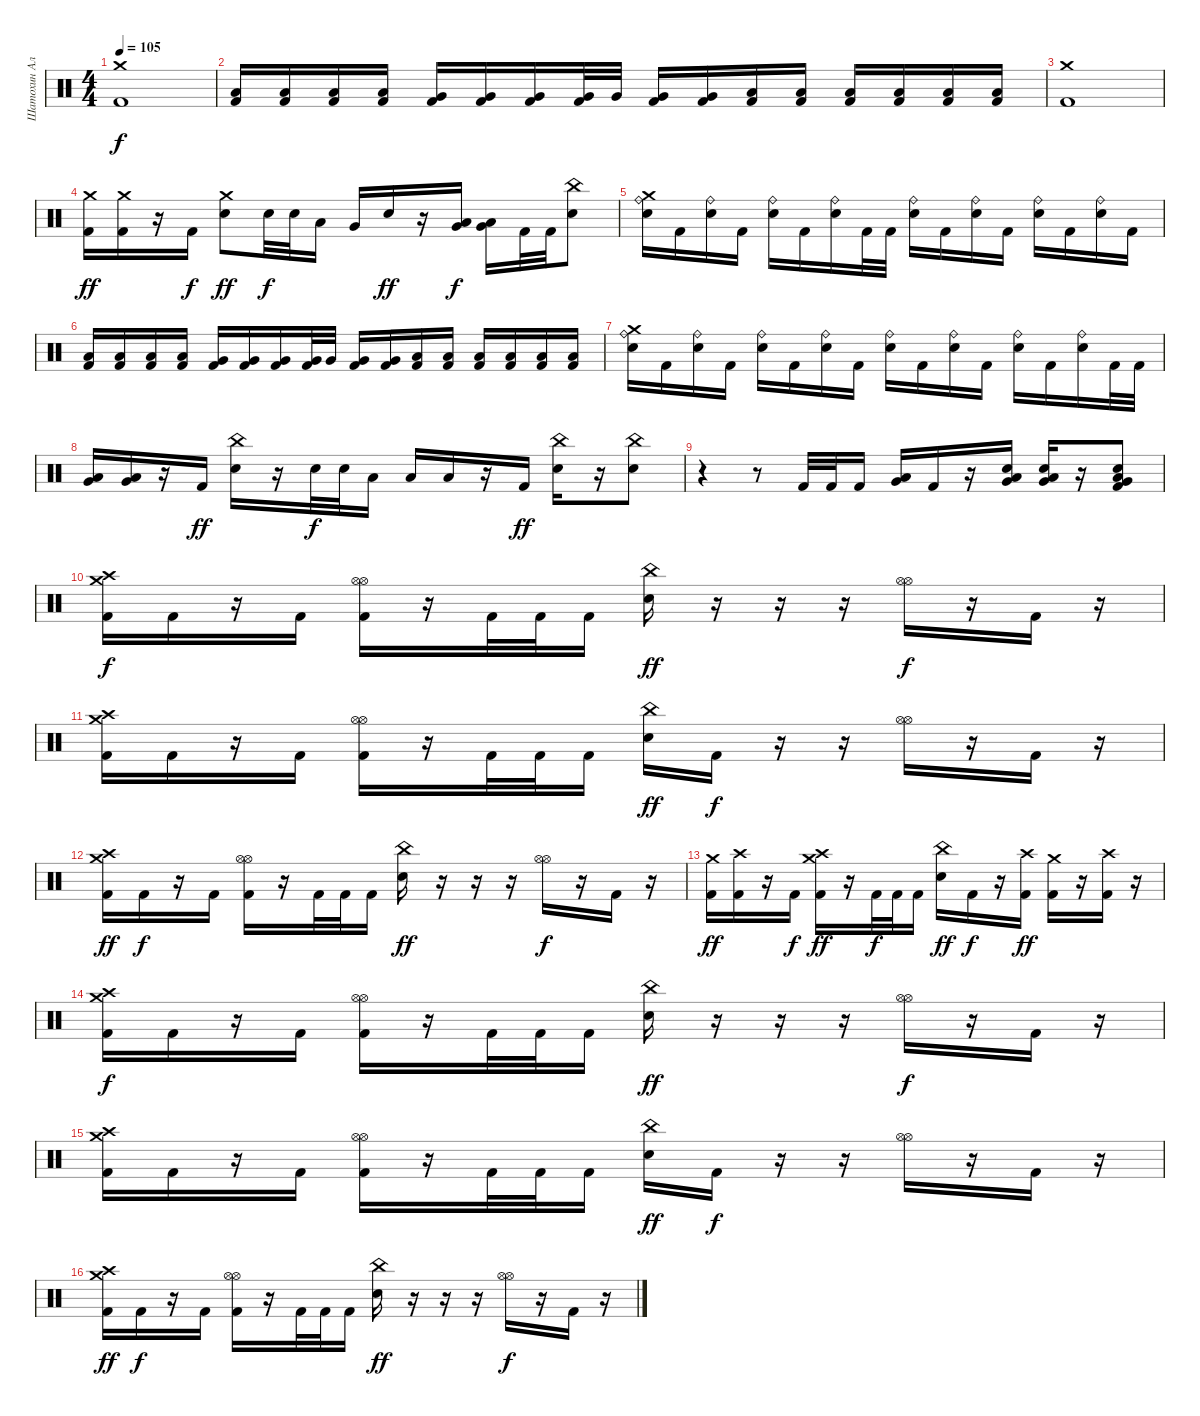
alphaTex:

\track ("Шатохин Алексей" "Шатохин Ал") {instrument percussion}
\staff {score}
\articulation defaults
\ts (4 4)
\tempo 105
\clef neutral
\ks c
("Crash medium (hit)" "Kick (hit) 2").1{dy f} |
("Low Tom (hit)" "Kick (hit) 2").16 ("Low Tom (hit)" "Kick (hit) 2").16 ("Low Tom (hit)" "Kick (hit) 2").16 ("Low Tom (hit)" "Kick (hit) 2").16 ("Very Low Tom (hit)" "Kick (hit) 2").16 ("Very Low Tom (hit)" "Kick (hit) 2").16 ("Very Low Tom (hit)" "Kick (hit) 2").16 ("Very Low Tom (hit)" "Kick (hit) 2").32 "Very Low Tom (hit)".32 ("Very Low Tom (hit)" "Kick (hit) 2").16 ("Very Low Tom (hit)" "Kick (hit) 2").16 ("Low Floor Tom (hit)" "Kick (hit) 2").16 ("Low Floor Tom (hit)" "Kick (hit) 2").16 ("Low Floor Tom (hit)" "Kick (hit) 2").16 ("Low Floor Tom (hit)" "Kick (hit) 2").16 ("Low Floor Tom (hit)" "Kick (hit) 2").16 ("Low Floor Tom (hit)" "Kick (hit) 2").16 |
("Crash medium (hit)" "Kick (hit) 2").1 |
("Crash medium (hit)" "Kick (hit) 2").16{dy ff} ("Crash medium (hit)" "Kick (hit) 2").16 r.16 "Kick (hit) 2".16{dy f} ("Crash medium (hit)" "Electric Snare (hit)").8{dy ff} "Electric Snare (hit)".32{dy f} "Electric Snare (hit)".32 "Low Tom (hit)".16 "Very Low Tom (hit)".16 "Electric Snare (hit)".16{dy ff} r.16 ("Very Low Tom (hit)" "Low Floor Tom (hit)").16{dy f} ("Very Low Tom (hit)" "Low Floor Tom (hit)").16 "Kick (hit) 2".32 "Kick (hit) 2".32 ("China (hit)" "Electric Snare (hit)").8 |
("Crash medium (hit)" "Ride (bell)" "Electric Snare (hit)").16 "Kick (hit) 2".16 ("Ride (bell)" "Electric Snare (hit)").16 "Kick (hit) 2".16 ("Ride (bell)" "Electric Snare (hit)").16 "Kick (hit) 2".16 ("Ride (bell)" "Electric Snare (hit)").16 "Kick (hit) 2".32 "Kick (hit) 2".32 ("Ride (bell)" "Electric Snare (hit)").16 "Kick (hit) 2".16 ("Ride (bell)" "Electric Snare (hit)").16 "Kick (hit) 2".16 ("Ride (bell)" "Electric Snare (hit)").16 "Kick (hit) 2".16 ("Ride (bell)" "Electric Snare (hit)").16 "Kick (hit) 2".16 |
("Low Tom (hit)" "Kick (hit) 2").16 ("Low Tom (hit)" "Kick (hit) 2").16 ("Low Tom (hit)" "Kick (hit) 2").16 ("Low Tom (hit)" "Kick (hit) 2").16 ("Very Low Tom (hit)" "Kick (hit) 2").16 ("Very Low Tom (hit)" "Kick (hit) 2").16 ("Very Low Tom (hit)" "Kick (hit) 2").16 ("Very Low Tom (hit)" "Kick (hit) 2").32 "Very Low Tom (hit)".32 ("Very Low Tom (hit)" "Kick (hit) 2").16 ("Very Low Tom (hit)" "Kick (hit) 2").16 ("Low Floor Tom (hit)" "Kick (hit) 2").16 ("Low Floor Tom (hit)" "Kick (hit) 2").16 ("Low Floor Tom (hit)" "Kick (hit) 2").16 ("Low Floor Tom (hit)" "Kick (hit) 2").16 ("Low Floor Tom (hit)" "Kick (hit) 2").16 ("Low Floor Tom (hit)" "Kick (hit) 2").16 |
("Crash medium (hit)" "Ride (bell)" "Electric Snare (hit)").16 "Kick (hit) 2".16 ("Ride (bell)" "Electric Snare (hit)").16 "Kick (hit) 2".16 ("Ride (bell)" "Electric Snare (hit)").16 "Kick (hit) 2".16 ("Ride (bell)" "Electric Snare (hit)").16 "Kick (hit) 2".16 ("Ride (bell)" "Electric Snare (hit)").16 "Kick (hit) 2".16 ("Ride (bell)" "Electric Snare (hit)").16 "Kick (hit) 2".16 ("Ride (bell)" "Electric Snare (hit)").16 "Kick (hit) 2".16 ("Ride (bell)" "Electric Snare (hit)").16 "Kick (hit) 2".32 "Kick (hit) 2".32 |
("Very Low Tom (hit)" "Low Tom (hit)").16 ("Very Low Tom (hit)" "Low Tom (hit)").16 r.16 "Kick (hit) 2".16{dy ff} ("China (hit)" "Electric Snare (hit)").16 r.16 "Electric Snare (hit)".32{dy f} "Electric Snare (hit)".32 "Low Floor Tom (hit)".16 "Low Tom (hit)".16 "Low Floor Tom (hit)".16 r.16 "Kick (hit) 2".16{dy ff} ("China (hit)" "Electric Snare (hit)").16 r.16 ("China (hit)" "Electric Snare (hit)").8 |
r.4 r.8 "Kick (hit) 2".32 "Kick (hit) 2".32 "Kick (hit) 2".16 ("Very Low Tom (hit)" "Low Tom (hit)").16 "Kick (hit) 2".16 r.16 ("Very Low Tom (hit)" "Low Floor Tom (hit)" "Electric Snare (hit)").16 ("Very Low Tom (hit)" "Low Floor Tom (hit)" "Electric Snare (hit)").16 r.16 ("Very Low Tom (hit)" "Low Floor Tom (hit)" "Electric Snare (hit)" "Kick (hit) 2").8 |
("Crash medium (hit)" "Crash high (hit)" "Kick (hit) 2").16{dy f} "Kick (hit) 2".16 r.16 "Kick (hit) 2".16 ("Hi-Hat (open)" "Hi-Hat (open)" "Kick (hit) 2").16 r.16 "Kick (hit) 2".32 "Kick (hit) 2".32 "Kick (hit) 2".16 ("China (hit)" "Electric Snare (hit)").16{dy ff} r.16 r.16 r.16 ("Hi-Hat (open)" "Hi-Hat (open)").16{dy f} r.16 "Kick (hit) 2".16 r.16 |
("Crash high (hit)" "Crash medium (hit)" "Kick (hit) 2").16 "Kick (hit) 2".16 r.16 "Kick (hit) 2".16 ("Hi-Hat (open)" "Hi-Hat (open)" "Kick (hit) 2").16 r.16 "Kick (hit) 2".32 "Kick (hit) 2".32 "Kick (hit) 2".16 ("China (hit)" "Electric Snare (hit)").16{dy ff} "Kick (hit) 2".16{dy f} r.16 r.16 ("Hi-Hat (open)" "Hi-Hat (open)").16 r.16 "Kick (hit) 2".16 r.16 |
("Crash medium (hit)" "Crash high (hit)" "Kick (hit) 2").16{dy ff} "Kick (hit) 2".16{dy f} r.16 "Kick (hit) 2".16 ("Hi-Hat (open)" "Hi-Hat (open)" "Kick (hit) 2").16 r.16 "Kick (hit) 2".32 "Kick (hit) 2".32 "Kick (hit) 2".16 ("China (hit)" "Electric Snare (hit)").16{dy ff} r.16 r.16 r.16 ("Hi-Hat (open)" "Hi-Hat (open)").16{dy f} r.16 "Kick (hit) 2".16 r.16 |
("Crash medium (hit)" "Kick (hit) 2").16{dy ff} ("Crash high (hit)" "Kick (hit) 2").16 r.16 "Kick (hit) 2".16{dy f} ("Crash medium (hit)" "Crash high (hit)" "Kick (hit) 2").16{dy ff} r.16 "Kick (hit) 2".32{dy f} "Kick (hit) 2".32 "Kick (hit) 2".16 ("China (hit)" "Electric Snare (hit)").16{dy ff} "Kick (hit) 2".16{dy f} r.16 ("Crash high (hit)" "Kick (hit) 2").16{dy ff} ("Crash medium (hit)" "Kick (hit) 2").16 r.16 ("Crash high (hit)" "Kick (hit) 2").16 r.16 |
("Crash medium (hit)" "Crash high (hit)" "Kick (hit) 2").16{dy f} "Kick (hit) 2".16 r.16 "Kick (hit) 2".16 ("Hi-Hat (open)" "Hi-Hat (open)" "Kick (hit) 2").16 r.16 "Kick (hit) 2".32 "Kick (hit) 2".32 "Kick (hit) 2".16 ("China (hit)" "Electric Snare (hit)").16{dy ff} r.16 r.16 r.16 ("Hi-Hat (open)" "Hi-Hat (open)").16{dy f} r.16 "Kick (hit) 2".16 r.16 |
("Crash high (hit)" "Crash medium (hit)" "Kick (hit) 2").16 "Kick (hit) 2".16 r.16 "Kick (hit) 2".16 ("Hi-Hat (open)" "Hi-Hat (open)" "Kick (hit) 2").16 r.16 "Kick (hit) 2".32 "Kick (hit) 2".32 "Kick (hit) 2".16 ("China (hit)" "Electric Snare (hit)").16{dy ff} "Kick (hit) 2".16{dy f} r.16 r.16 ("Hi-Hat (open)" "Hi-Hat (open)").16 r.16 "Kick (hit) 2".16 r.16 |
("Crash medium (hit)" "Crash high (hit)" "Kick (hit) 2").16{dy ff} "Kick (hit) 2".16{dy f} r.16 "Kick (hit) 2".16 ("Hi-Hat (open)" "Hi-Hat (open)" "Kick (hit) 2").16 r.16 "Kick (hit) 2".32 "Kick (hit) 2".32 "Kick (hit) 2".16 ("China (hit)" "Electric Snare (hit)").16{dy ff} r.16 r.16 r.16 ("Hi-Hat (open)" "Hi-Hat (open)").16{dy f} r.16 "Kick (hit) 2".16 r.16
